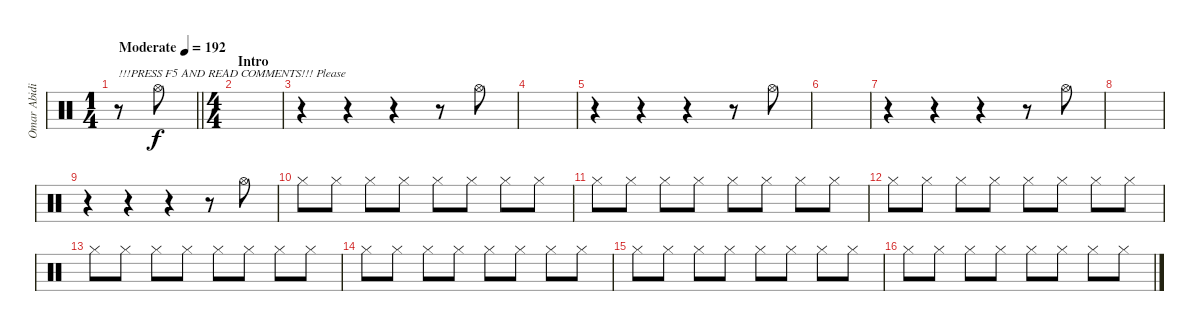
\track ("Omar Abidi" "Omar Abidi") {instrument percussion}
\staff {score}
\articulation defaults
\ts (1 4)
\tempo (192 "Moderate")
\clef neutral
\barLineRight lightlight
\ks c
r.8{txt "!!!PRESS F5 AND READ COMMENTS!!! Please" dy f} "Hi-Hat (open)".8 |
\ts (4 4)
\section ("" "Intro")
|
r.4 r.4 r.4 r.8 "Hi-Hat (open)".8 |
|
r.4 r.4 r.4 r.8 "Hi-Hat (open)".8 |
|
r.4 r.4 r.4 r.8 "Hi-Hat (open)".8 |
|
r.4 r.4 r.4 r.8 "Hi-Hat (open)".8 |
"Hi-Hat (closed)".8 "Hi-Hat (closed)".8 "Hi-Hat (closed)".8 "Hi-Hat (closed)".8 "Hi-Hat (closed)".8 "Hi-Hat (closed)".8 "Hi-Hat (closed)".8 "Hi-Hat (closed)".8 |
"Hi-Hat (closed)".8 "Hi-Hat (closed)".8 "Hi-Hat (closed)".8 "Hi-Hat (closed)".8 "Hi-Hat (closed)".8 "Hi-Hat (closed)".8 "Hi-Hat (closed)".8 "Hi-Hat (closed)".8 |
"Hi-Hat (closed)".8 "Hi-Hat (closed)".8 "Hi-Hat (closed)".8 "Hi-Hat (closed)".8 "Hi-Hat (closed)".8 "Hi-Hat (closed)".8 "Hi-Hat (closed)".8 "Hi-Hat (closed)".8 |
"Hi-Hat (closed)".8 "Hi-Hat (closed)".8 "Hi-Hat (closed)".8 "Hi-Hat (closed)".8 "Hi-Hat (closed)".8 "Hi-Hat (closed)".8 "Hi-Hat (closed)".8 "Hi-Hat (closed)".8 |
"Hi-Hat (closed)".8 "Hi-Hat (closed)".8 "Hi-Hat (closed)".8 "Hi-Hat (closed)".8 "Hi-Hat (closed)".8 "Hi-Hat (closed)".8 "Hi-Hat (closed)".8 "Hi-Hat (closed)".8 |
"Hi-Hat (closed)".8 "Hi-Hat (closed)".8 "Hi-Hat (closed)".8 "Hi-Hat (closed)".8 "Hi-Hat (closed)".8 "Hi-Hat (closed)".8 "Hi-Hat (closed)".8 "Hi-Hat (closed)".8 |
"Hi-Hat (closed)".8 "Hi-Hat (closed)".8 "Hi-Hat (closed)".8 "Hi-Hat (closed)".8 "Hi-Hat (closed)".8 "Hi-Hat (closed)".8 "Hi-Hat (closed)".8 "Hi-Hat (closed)".8
